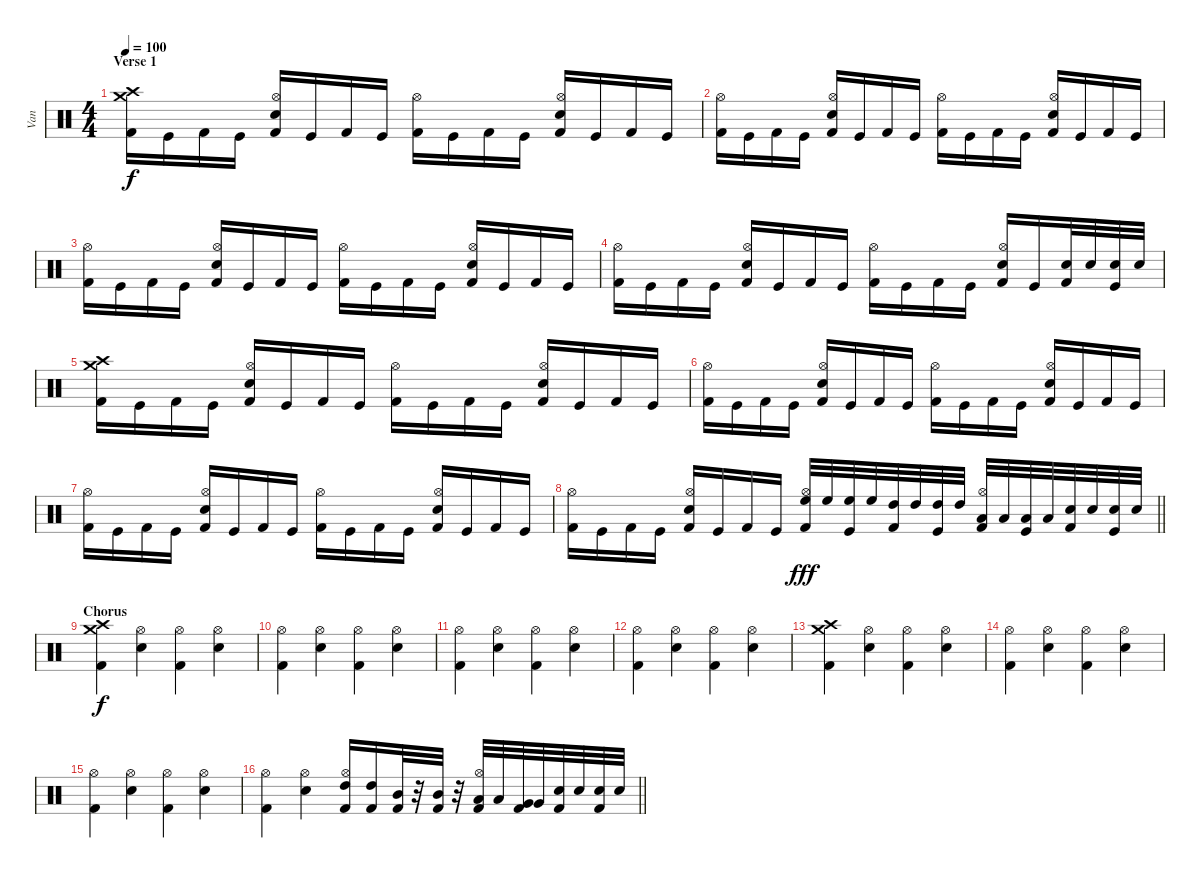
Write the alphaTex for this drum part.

\track ("Van" "Van") {instrument percussion}
\staff {score}
\articulation defaults
\ts (4 4)
\section ("" "Verse 1")
\tempo 100
\clef neutral
\ks c
("Crash high (hit)" "Crash medium (hit)" "Kick (hit) 2").16{dy f} "Kick (hit)".16 "Kick (hit) 2".16 "Kick (hit)".16 ("Hi-Hat (open)" "Electric Snare (hit)" "Kick (hit) 2").16 "Kick (hit)".16 "Kick (hit) 2".16 "Kick (hit)".16 ("Hi-Hat (open)" "Kick (hit) 2").16 "Kick (hit)".16 "Kick (hit) 2".16 "Kick (hit)".16 ("Hi-Hat (open)" "Electric Snare (hit)" "Kick (hit) 2").16 "Kick (hit)".16 "Kick (hit) 2".16 "Kick (hit)".16 |
("Hi-Hat (open)" "Kick (hit) 2").16 "Kick (hit)".16 "Kick (hit) 2".16 "Kick (hit)".16 ("Hi-Hat (open)" "Electric Snare (hit)" "Kick (hit) 2").16 "Kick (hit)".16 "Kick (hit) 2".16 "Kick (hit)".16 ("Hi-Hat (open)" "Kick (hit) 2").16 "Kick (hit)".16 "Kick (hit) 2".16 "Kick (hit)".16 ("Hi-Hat (open)" "Electric Snare (hit)" "Kick (hit) 2").16 "Kick (hit)".16 "Kick (hit) 2".16 "Kick (hit)".16 |
("Hi-Hat (open)" "Kick (hit) 2").16 "Kick (hit)".16 "Kick (hit) 2".16 "Kick (hit)".16 ("Hi-Hat (open)" "Electric Snare (hit)" "Kick (hit) 2").16 "Kick (hit)".16 "Kick (hit) 2".16 "Kick (hit)".16 ("Hi-Hat (open)" "Kick (hit) 2").16 "Kick (hit)".16 "Kick (hit) 2".16 "Kick (hit)".16 ("Hi-Hat (open)" "Electric Snare (hit)" "Kick (hit) 2").16 "Kick (hit)".16 "Kick (hit) 2".16 "Kick (hit)".16 |
("Hi-Hat (open)" "Kick (hit) 2").16 "Kick (hit)".16 "Kick (hit) 2".16 "Kick (hit)".16 ("Hi-Hat (open)" "Electric Snare (hit)" "Kick (hit) 2").16 "Kick (hit)".16 "Kick (hit) 2".16 "Kick (hit)".16 ("Hi-Hat (open)" "Kick (hit) 2").16 "Kick (hit)".16 "Kick (hit) 2".16 "Kick (hit)".16 ("Hi-Hat (open)" "Electric Snare (hit)" "Kick (hit) 2").16 "Kick (hit)".16 ("Electric Snare (hit)" "Kick (hit) 2").32 "Electric Snare (hit)".32 ("Electric Snare (hit)" "Kick (hit)").32 "Electric Snare (hit)".32 |
("Crash high (hit)" "Crash medium (hit)" "Kick (hit) 2").16 "Kick (hit)".16 "Kick (hit) 2".16 "Kick (hit)".16 ("Hi-Hat (open)" "Electric Snare (hit)" "Kick (hit) 2").16 "Kick (hit)".16 "Kick (hit) 2".16 "Kick (hit)".16 ("Hi-Hat (open)" "Kick (hit) 2").16 "Kick (hit)".16 "Kick (hit) 2".16 "Kick (hit)".16 ("Hi-Hat (open)" "Electric Snare (hit)" "Kick (hit) 2").16 "Kick (hit)".16 "Kick (hit) 2".16 "Kick (hit)".16 |
("Hi-Hat (open)" "Kick (hit) 2").16 "Kick (hit)".16 "Kick (hit) 2".16 "Kick (hit)".16 ("Hi-Hat (open)" "Electric Snare (hit)" "Kick (hit) 2").16 "Kick (hit)".16 "Kick (hit) 2".16 "Kick (hit)".16 ("Hi-Hat (open)" "Kick (hit) 2").16 "Kick (hit)".16 "Kick (hit) 2".16 "Kick (hit)".16 ("Hi-Hat (open)" "Electric Snare (hit)" "Kick (hit) 2").16 "Kick (hit)".16 "Kick (hit) 2".16 "Kick (hit)".16 |
("Hi-Hat (open)" "Kick (hit) 2").16 "Kick (hit)".16 "Kick (hit) 2".16 "Kick (hit)".16 ("Hi-Hat (open)" "Electric Snare (hit)" "Kick (hit) 2").16 "Kick (hit)".16 "Kick (hit) 2".16 "Kick (hit)".16 ("Hi-Hat (open)" "Kick (hit) 2").16 "Kick (hit)".16 "Kick (hit) 2".16 "Kick (hit)".16 ("Hi-Hat (open)" "Electric Snare (hit)" "Kick (hit) 2").16 "Kick (hit)".16 "Kick (hit) 2".16 "Kick (hit)".16 |
\barLineRight lightlight
("Hi-Hat (open)" "Kick (hit) 2").16 "Kick (hit)".16 "Kick (hit) 2".16 "Kick (hit)".16 ("Hi-Hat (open)" "Electric Snare (hit)" "Kick (hit) 2").16 "Kick (hit)".16 "Kick (hit) 2".16 "Kick (hit)".16 ("Hi-Hat (open)" "High Floor Tom (hit)" "Kick (hit) 2").32{dy fff} "High Floor Tom (hit)".32 ("High Floor Tom (hit)" "Kick (hit)").32 "High Floor Tom (hit)".32 ("High Tom (hit)" "Kick (hit) 2").32 "High Tom (hit)".32 ("High Tom (hit)" "Kick (hit)").32 "High Tom (hit)".32 ("Hi-Hat (open)" "Low Tom (hit)" "Kick (hit) 2").32 "Low Tom (hit)".32 ("Low Tom (hit)" "Kick (hit)").32 "Low Tom (hit)".32 ("Electric Snare (hit)" "Kick (hit) 2").32 "Electric Snare (hit)".32 ("Electric Snare (hit)" "Kick (hit)").32 "Electric Snare (hit)".32 |
\section ("" "Chorus")
("Crash medium (hit)" "Crash high (hit)" "Kick (hit) 2").4{dy f} ("Hi-Hat (open)" "Electric Snare (hit)").4 ("Hi-Hat (open)" "Kick (hit) 2").4 ("Hi-Hat (open)" "Electric Snare (hit)").4 |
("Hi-Hat (open)" "Kick (hit) 2").4 ("Hi-Hat (open)" "Electric Snare (hit)").4 ("Hi-Hat (open)" "Kick (hit) 2").4 ("Hi-Hat (open)" "Electric Snare (hit)").4 |
("Hi-Hat (open)" "Kick (hit) 2").4 ("Hi-Hat (open)" "Electric Snare (hit)").4 ("Hi-Hat (open)" "Kick (hit) 2").4 ("Hi-Hat (open)" "Electric Snare (hit)").4 |
("Hi-Hat (open)" "Kick (hit) 2").4 ("Hi-Hat (open)" "Electric Snare (hit)").4 ("Hi-Hat (open)" "Kick (hit) 2").4 ("Hi-Hat (open)" "Electric Snare (hit)").4 |
("Crash medium (hit)" "Crash high (hit)" "Kick (hit) 2").4 ("Hi-Hat (open)" "Electric Snare (hit)").4 ("Hi-Hat (open)" "Kick (hit) 2").4 ("Hi-Hat (open)" "Electric Snare (hit)").4 |
("Hi-Hat (open)" "Kick (hit) 2").4 ("Hi-Hat (open)" "Electric Snare (hit)").4 ("Hi-Hat (open)" "Kick (hit) 2").4 ("Hi-Hat (open)" "Electric Snare (hit)").4 |
("Hi-Hat (open)" "Kick (hit) 2").4 ("Hi-Hat (open)" "Electric Snare (hit)").4 ("Hi-Hat (open)" "Kick (hit) 2").4 ("Hi-Hat (open)" "Electric Snare (hit)").4 |
\barLineRight lightlight
("Hi-Hat (open)" "Kick (hit) 2").4 ("Hi-Hat (open)" "Electric Snare (hit)").4 ("Hi-Hat (open)" "High Tom (hit)" "Kick (hit) 2").16 ("High Tom (hit)" "Kick (hit) 2").16 ("Mid Tom (hit)" "Kick (hit) 2").32 r.32 ("Mid Tom (hit)" "Kick (hit) 2").32 r.32 ("Hi-Hat (open)" "Low Tom (hit)" "Kick (hit) 2").32 "Low Tom (hit)".32 ("Very Low Tom (hit)" "Kick (hit) 2").32 "Very Low Tom (hit)".32 ("Electric Snare (hit)" "Kick (hit) 2").32 "Electric Snare (hit)".32 ("Electric Snare (hit)" "Kick (hit) 2").32 "Electric Snare (hit)".32
